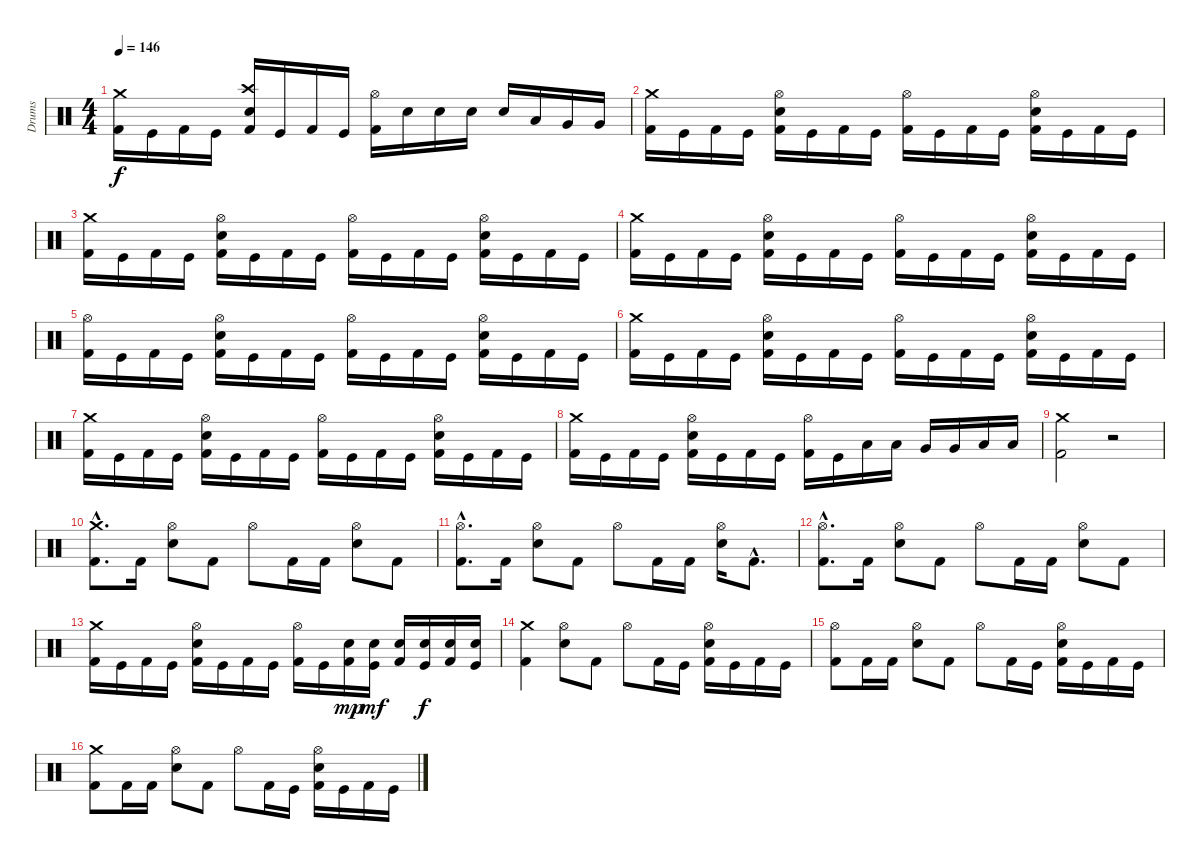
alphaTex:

\track ("Drums" "Drums") {instrument percussion}
\staff {score}
\articulation defaults
\ts (4 4)
\tempo 146
\clef neutral
\ks c
("Crash medium (hit)" "Kick (hit) 2").16{dy f} "Kick (hit)".16 "Kick (hit) 2".16 "Kick (hit)".16 ("Crash high (hit)" "Snare (hit) 2" "Kick (hit) 2").16 "Kick (hit)".16 "Kick (hit) 2".16 "Kick (hit)".16 ("Hi-Hat (open)" "Kick (hit) 2").16 "Snare (hit) 2".16 "Snare (hit) 2".16 "Snare (hit) 2".16 "Snare (hit) 2".16 "Low Tom (hit)".16 "Very Low Tom (hit)".16 "Very Low Tom (hit)".16 |
("Crash medium (hit)" "Kick (hit) 2").16 "Kick (hit)".16 "Kick (hit) 2".16 "Kick (hit)".16 ("Hi-Hat (open)" "Snare (hit) 2" "Kick (hit) 2").16 "Kick (hit)".16 "Kick (hit) 2".16 "Kick (hit)".16 ("Hi-Hat (open)" "Kick (hit) 2").16 "Kick (hit)".16 "Kick (hit) 2".16 "Kick (hit)".16 ("Hi-Hat (open)" "Snare (hit) 2" "Kick (hit) 2").16 "Kick (hit)".16 "Kick (hit) 2".16 "Kick (hit)".16 |
("Crash medium (hit)" "Kick (hit) 2").16 "Kick (hit)".16 "Kick (hit) 2".16 "Kick (hit)".16 ("Hi-Hat (open)" "Snare (hit) 2" "Kick (hit) 2").16 "Kick (hit)".16 "Kick (hit) 2".16 "Kick (hit)".16 ("Hi-Hat (open)" "Kick (hit) 2").16 "Kick (hit)".16 "Kick (hit) 2".16 "Kick (hit)".16 ("Hi-Hat (open)" "Snare (hit) 2" "Kick (hit) 2").16 "Kick (hit)".16 "Kick (hit) 2".16 "Kick (hit)".16 |
("Crash medium (hit)" "Kick (hit) 2").16 "Kick (hit)".16 "Kick (hit) 2".16 "Kick (hit)".16 ("Hi-Hat (open)" "Snare (hit) 2" "Kick (hit) 2").16 "Kick (hit)".16 "Kick (hit) 2".16 "Kick (hit)".16 ("Hi-Hat (open)" "Kick (hit) 2").16 "Kick (hit)".16 "Kick (hit) 2".16 "Kick (hit)".16 ("Hi-Hat (open)" "Snare (hit) 2" "Kick (hit) 2").16 "Kick (hit)".16 "Kick (hit) 2".16 "Kick (hit)".16 |
("Hi-Hat (open)" "Kick (hit) 2").16 "Kick (hit)".16 "Kick (hit) 2".16 "Kick (hit)".16 ("Hi-Hat (open)" "Snare (hit) 2" "Kick (hit) 2").16 "Kick (hit)".16 "Kick (hit) 2".16 "Kick (hit)".16 ("Hi-Hat (open)" "Kick (hit) 2").16 "Kick (hit)".16 "Kick (hit) 2".16 "Kick (hit)".16 ("Hi-Hat (open)" "Snare (hit) 2" "Kick (hit) 2").16 "Kick (hit)".16 "Kick (hit) 2".16 "Kick (hit)".16 |
("Crash medium (hit)" "Kick (hit) 2").16 "Kick (hit)".16 "Kick (hit) 2".16 "Kick (hit)".16 ("Hi-Hat (open)" "Snare (hit) 2" "Kick (hit) 2").16 "Kick (hit)".16 "Kick (hit) 2".16 "Kick (hit)".16 ("Hi-Hat (open)" "Kick (hit) 2").16 "Kick (hit)".16 "Kick (hit) 2".16 "Kick (hit)".16 ("Hi-Hat (open)" "Snare (hit) 2" "Kick (hit) 2").16 "Kick (hit)".16 "Kick (hit) 2".16 "Kick (hit)".16 |
("Crash medium (hit)" "Kick (hit) 2").16 "Kick (hit)".16 "Kick (hit) 2".16 "Kick (hit)".16 ("Hi-Hat (open)" "Snare (hit) 2" "Kick (hit) 2").16 "Kick (hit)".16 "Kick (hit) 2".16 "Kick (hit)".16 ("Hi-Hat (open)" "Kick (hit) 2").16 "Kick (hit)".16 "Kick (hit) 2".16 "Kick (hit)".16 ("Hi-Hat (open)" "Snare (hit) 2" "Kick (hit) 2").16 "Kick (hit)".16 "Kick (hit) 2".16 "Kick (hit)".16 |
("Crash medium (hit)" "Kick (hit) 2").16 "Kick (hit)".16 "Kick (hit) 2".16 "Kick (hit)".16 ("Hi-Hat (open)" "Snare (hit) 2" "Kick (hit) 2").16 "Kick (hit)".16 "Kick (hit) 2".16 "Kick (hit)".16 ("Hi-Hat (open)" "Kick (hit) 2").16 "Kick (hit)".16 "Low Tom (hit)".16 "Low Tom (hit)".16 "Very Low Tom (hit)".16 "Very Low Tom (hit)".16 "Low Floor Tom (hit)".16 "Low Floor Tom (hit)".16 |
("Crash medium (hit)" "Kick (hit) 2").2 r.2 |
("Crash medium (hit)"{hac} "Kick (hit) 2"{hac}).8{d} "Kick (hit) 2".16 ("Hi-Hat (open)" "Snare (hit) 2").8 "Kick (hit) 2".8 "Hi-Hat (open)".8 "Kick (hit) 2".16 "Kick (hit) 2".16 ("Hi-Hat (open)" "Snare (hit) 2").8 "Kick (hit) 2".8 |
("Hi-Hat (open)"{hac} "Kick (hit) 2"{hac}).8{d} "Kick (hit) 2".16 ("Hi-Hat (open)" "Snare (hit) 2").8 "Kick (hit) 2".8 "Hi-Hat (open)".8 "Kick (hit) 2".16 "Kick (hit) 2".16 ("Hi-Hat (open)" "Snare (hit) 2").16 "Kick (hit) 2"{hac}.8{d} |
("Hi-Hat (open)"{hac} "Kick (hit) 2"{hac}).8{d} "Kick (hit) 2".16 ("Hi-Hat (open)" "Snare (hit) 2").8 "Kick (hit) 2".8 "Hi-Hat (open)".8 "Kick (hit) 2".16 "Kick (hit) 2".16 ("Hi-Hat (open)" "Snare (hit) 2").8 "Kick (hit) 2".8 |
("Crash medium (hit)" "Kick (hit) 2").16 "Kick (hit)".16 "Kick (hit) 2".16 "Kick (hit)".16 ("Hi-Hat (open)" "Snare (hit) 2" "Kick (hit) 2").16 "Kick (hit)".16 "Kick (hit) 2".16 "Kick (hit)".16 ("Hi-Hat (open)" "Kick (hit) 2").16 "Kick (hit)".16 ("Snare (hit) 2" "Kick (hit) 2").16{dy mp} ("Snare (hit) 2" "Kick (hit)").16{dy mf} ("Snare (hit) 2" "Kick (hit) 2").16 ("Snare (hit) 2" "Kick (hit)").16{dy f} ("Snare (hit) 2" "Kick (hit) 2").16 ("Snare (hit) 2" "Kick (hit)").16 |
("Crash medium (hit)" "Kick (hit) 2").4 ("Hi-Hat (open)" "Snare (hit) 2").8 "Kick (hit) 2".8 "Hi-Hat (open)".8 "Kick (hit) 2".16 "Kick (hit)".16 ("Hi-Hat (open)" "Snare (hit) 2" "Kick (hit) 2").16 "Kick (hit)".16 "Kick (hit) 2".16 "Kick (hit)".16 |
("Hi-Hat (open)" "Kick (hit) 2").8 "Kick (hit) 2".16 "Kick (hit) 2".16 ("Hi-Hat (open)" "Snare (hit) 2").8 "Kick (hit) 2".8 "Hi-Hat (open)".8 "Kick (hit) 2".16 "Kick (hit)".16 ("Hi-Hat (open)" "Snare (hit) 2" "Kick (hit) 2").16 "Kick (hit)".16 "Kick (hit) 2".16 "Kick (hit)".16 |
("Crash medium (hit)" "Kick (hit) 2").8 "Kick (hit) 2".16 "Kick (hit) 2".16 ("Hi-Hat (open)" "Snare (hit) 2").8 "Kick (hit) 2".8 "Hi-Hat (open)".8 "Kick (hit) 2".16 "Kick (hit)".16 ("Hi-Hat (open)" "Snare (hit) 2" "Kick (hit) 2").16 "Kick (hit)".16 "Kick (hit) 2".16 "Kick (hit)".16
